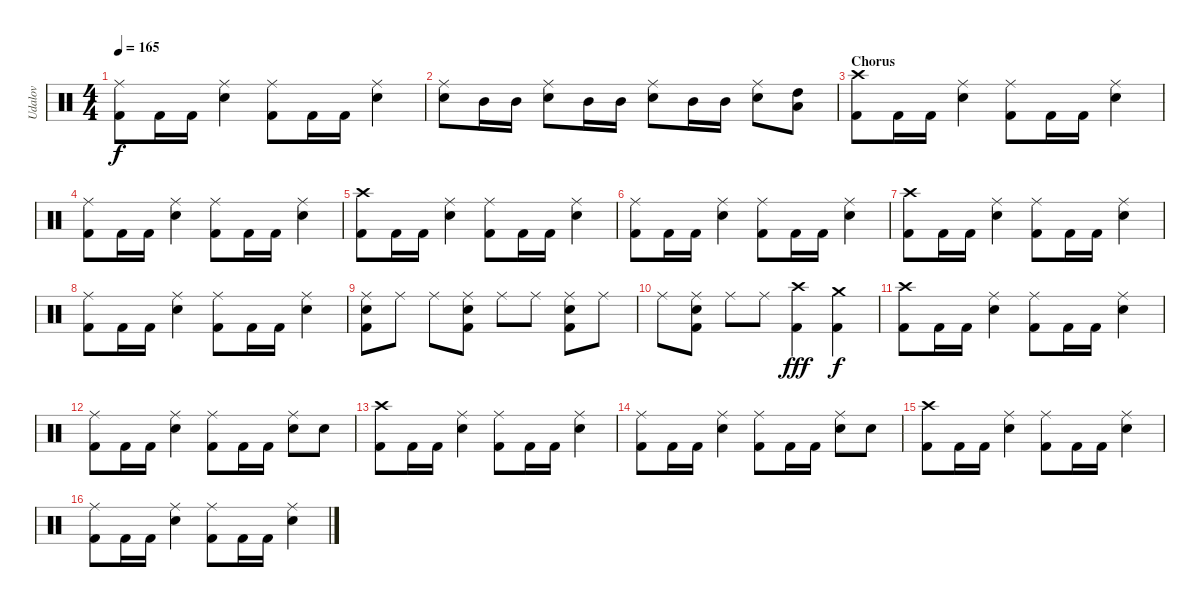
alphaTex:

\track ("Udalov" "Udalov") {instrument percussion}
\staff {score}
\articulation defaults
\ts (4 4)
\tempo 165
\clef neutral
\ks c
("Kick (hit) 2" "Ride (middle)").8{dy f} "Kick (hit) 2".16 "Kick (hit) 2".16 ("Snare (hit) 2" "Ride (middle)").4 ("Kick (hit) 2" "Ride (middle)").8 "Kick (hit) 2".16 "Kick (hit) 2".16 ("Snare (hit) 2" "Ride (middle)").4 |
("Snare (hit) 2" "Ride (middle)").8 "Mid Tom (hit)".16 "Mid Tom (hit)".16 ("Snare (hit) 2" "Ride (middle)").8 "Mid Tom (hit)".16 "Mid Tom (hit)".16 ("Snare (hit) 2" "Ride (middle)").8 "Mid Tom (hit)".16 "Mid Tom (hit)".16 ("Snare (hit) 2" "Ride (middle)").8 ("High Tom (hit)" "Low Tom (hit)").8 |
\section ("" "Chorus")
("Kick (hit) 2" "Crash high (hit)").8 "Kick (hit) 2".16 "Kick (hit) 2".16 ("Snare (hit) 2" "Ride (middle)").4 ("Kick (hit) 2" "Ride (middle)").8 "Kick (hit) 2".16 "Kick (hit) 2".16 ("Snare (hit) 2" "Ride (middle)").4 |
("Kick (hit) 2" "Ride (middle)").8 "Kick (hit) 2".16 "Kick (hit) 2".16 ("Snare (hit) 2" "Ride (middle)").4 ("Kick (hit) 2" "Ride (middle)").8 "Kick (hit) 2".16 "Kick (hit) 2".16 ("Snare (hit) 2" "Ride (middle)").4 |
("Kick (hit) 2" "Crash high (hit)").8 "Kick (hit) 2".16 "Kick (hit) 2".16 ("Snare (hit) 2" "Ride (middle)").4 ("Kick (hit) 2" "Ride (middle)").8 "Kick (hit) 2".16 "Kick (hit) 2".16 ("Snare (hit) 2" "Ride (middle)").4 |
("Kick (hit) 2" "Ride (middle)").8 "Kick (hit) 2".16 "Kick (hit) 2".16 ("Snare (hit) 2" "Ride (middle)").4 ("Kick (hit) 2" "Ride (middle)").8 "Kick (hit) 2".16 "Kick (hit) 2".16 ("Snare (hit) 2" "Ride (middle)").4 |
("Kick (hit) 2" "Crash high (hit)").8 "Kick (hit) 2".16 "Kick (hit) 2".16 ("Snare (hit) 2" "Ride (middle)").4 ("Kick (hit) 2" "Ride (middle)").8 "Kick (hit) 2".16 "Kick (hit) 2".16 ("Snare (hit) 2" "Ride (middle)").4 |
("Kick (hit) 2" "Ride (middle)").8 "Kick (hit) 2".16 "Kick (hit) 2".16 ("Snare (hit) 2" "Ride (middle)").4 ("Kick (hit) 2" "Ride (middle)").8 "Kick (hit) 2".16 "Kick (hit) 2".16 ("Snare (hit) 2" "Ride (middle)").4 |
("Snare (hit) 2" "Ride (middle)" "Kick (hit) 2").8 "Ride (middle)".8 "Ride (middle)".8 ("Snare (hit) 2" "Ride (middle)" "Kick (hit) 2").8 "Ride (middle)".8 "Ride (middle)".8 ("Snare (hit) 2" "Ride (middle)" "Kick (hit) 2").8 "Ride (middle)".8 |
"Ride (middle)".8 ("Snare (hit) 2" "Ride (middle)" "Kick (hit) 2").8 "Ride (middle)".8 "Ride (middle)".8 ("Kick (hit) 2" "Crash high (hit)").4{dy fff} ("Kick (hit) 2" "Crash medium (hit)").4{dy f} |
("Kick (hit) 2" "Crash high (hit)").8 "Kick (hit) 2".16 "Kick (hit) 2".16 ("Snare (hit) 2" "Ride (middle)").4 ("Kick (hit) 2" "Ride (middle)").8 "Kick (hit) 2".16 "Kick (hit) 2".16 ("Snare (hit) 2" "Ride (middle)").4 |
("Kick (hit) 2" "Ride (middle)").8 "Kick (hit) 2".16 "Kick (hit) 2".16 ("Snare (hit) 2" "Ride (middle)").4 ("Kick (hit) 2" "Ride (middle)").8 "Kick (hit) 2".16 "Kick (hit) 2".16 ("Snare (hit) 2" "Ride (middle)").8 "Snare (hit) 2".8 |
("Kick (hit) 2" "Crash high (hit)").8 "Kick (hit) 2".16 "Kick (hit) 2".16 ("Snare (hit) 2" "Ride (middle)").4 ("Kick (hit) 2" "Ride (middle)").8 "Kick (hit) 2".16 "Kick (hit) 2".16 ("Snare (hit) 2" "Ride (middle)").4 |
("Kick (hit) 2" "Ride (middle)").8 "Kick (hit) 2".16 "Kick (hit) 2".16 ("Snare (hit) 2" "Ride (middle)").4 ("Kick (hit) 2" "Ride (middle)").8 "Kick (hit) 2".16 "Kick (hit) 2".16 ("Snare (hit) 2" "Ride (middle)").8 "Snare (hit) 2".8 |
("Kick (hit) 2" "Crash high (hit)").8 "Kick (hit) 2".16 "Kick (hit) 2".16 ("Snare (hit) 2" "Ride (middle)").4 ("Kick (hit) 2" "Ride (middle)").8 "Kick (hit) 2".16 "Kick (hit) 2".16 ("Snare (hit) 2" "Ride (middle)").4 |
("Kick (hit) 2" "Ride (middle)").8 "Kick (hit) 2".16 "Kick (hit) 2".16 ("Snare (hit) 2" "Ride (middle)").4 ("Kick (hit) 2" "Ride (middle)").8 "Kick (hit) 2".16 "Kick (hit) 2".16 ("Snare (hit) 2" "Ride (middle)").4
